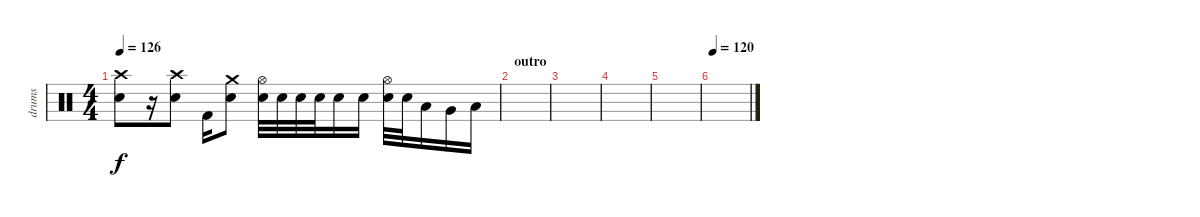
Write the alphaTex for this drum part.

\track ("drums" "drums") {instrument percussion}
\staff {score}
\articulation defaults
\ts (4 4)
\tempo 126
\clef neutral
\ks c
("Crash high (hit)" "Electric Snare (hit)").8{dy f} r.16 ("Crash high (hit)" "Electric Snare (hit)").8 "Kick (hit) 2".16 ("Crash medium (hit)" "Electric Snare (hit)").8 ("Hi-Hat (open)" "Electric Snare (hit)").32 "Electric Snare (hit)".32 "Electric Snare (hit)".32 "Electric Snare (hit)".32 "Electric Snare (hit)".16 "Electric Snare (hit)".16 ("Hi-Hat (open)" "Electric Snare (hit)").32 "Electric Snare (hit)".32 "Low Tom (hit)".16 "Very Low Tom (hit)".16 "Low Floor Tom (hit)".16 |
\section ("" "outro")
|
|
|
|
\tempo 120
